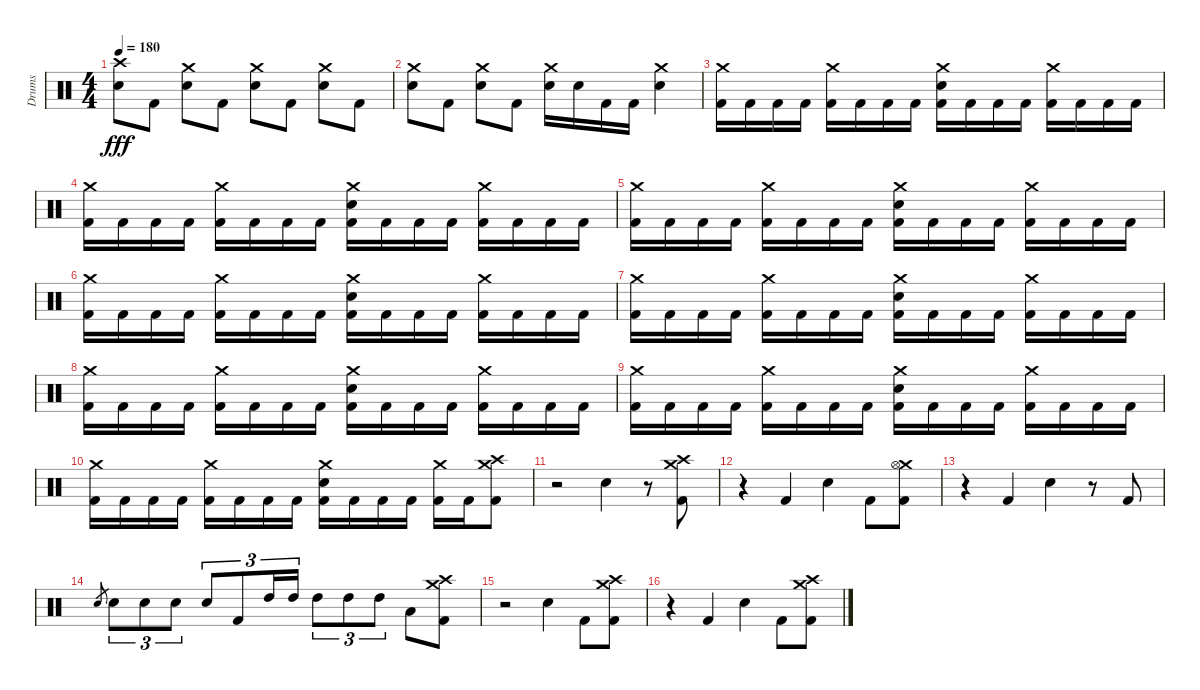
\track ("Drums" "Drums") {instrument percussion}
\staff {score}
\articulation defaults
\ts (4 4)
\tempo 180
\clef neutral
\ks c
("Crash high (hit)" "Electric Snare (hit)").8{dy fff} "Kick (hit) 2".8 ("Crash medium (hit)" "Electric Snare (hit)").8 "Kick (hit) 2".8 ("Crash medium (hit)" "Electric Snare (hit)").8 "Kick (hit) 2".8 ("Crash medium (hit)" "Electric Snare (hit)").8 "Kick (hit) 2".8 |
("Crash medium (hit)" "Electric Snare (hit)").8 "Kick (hit) 2".8 ("Crash medium (hit)" "Electric Snare (hit)").8 "Kick (hit) 2".8 ("Crash medium (hit)" "Electric Snare (hit)").16 "Electric Snare (hit)".16 "Kick (hit) 2".16 "Kick (hit) 2".16 ("Crash medium (hit)" "Electric Snare (hit)").4 |
("Crash medium (hit)" "Kick (hit) 2").16 "Kick (hit) 2".16 "Kick (hit) 2".16 "Kick (hit) 2".16 ("Crash medium (hit)" "Kick (hit) 2").16 "Kick (hit) 2".16 "Kick (hit) 2".16 "Kick (hit) 2".16 ("Crash medium (hit)" "Electric Snare (hit)" "Kick (hit) 2").16 "Kick (hit) 2".16 "Kick (hit) 2".16 "Kick (hit) 2".16 ("Crash medium (hit)" "Kick (hit) 2").16 "Kick (hit) 2".16 "Kick (hit) 2".16 "Kick (hit) 2".16 |
("Crash medium (hit)" "Kick (hit) 2").16 "Kick (hit) 2".16 "Kick (hit) 2".16 "Kick (hit) 2".16 ("Crash medium (hit)" "Kick (hit) 2").16 "Kick (hit) 2".16 "Kick (hit) 2".16 "Kick (hit) 2".16 ("Crash medium (hit)" "Electric Snare (hit)" "Kick (hit) 2").16 "Kick (hit) 2".16 "Kick (hit) 2".16 "Kick (hit) 2".16 ("Crash medium (hit)" "Kick (hit) 2").16 "Kick (hit) 2".16 "Kick (hit) 2".16 "Kick (hit) 2".16 |
("Crash medium (hit)" "Kick (hit) 2").16 "Kick (hit) 2".16 "Kick (hit) 2".16 "Kick (hit) 2".16 ("Crash medium (hit)" "Kick (hit) 2").16 "Kick (hit) 2".16 "Kick (hit) 2".16 "Kick (hit) 2".16 ("Crash medium (hit)" "Electric Snare (hit)" "Kick (hit) 2").16 "Kick (hit) 2".16 "Kick (hit) 2".16 "Kick (hit) 2".16 ("Crash medium (hit)" "Kick (hit) 2").16 "Kick (hit) 2".16 "Kick (hit) 2".16 "Kick (hit) 2".16 |
("Crash medium (hit)" "Kick (hit) 2").16 "Kick (hit) 2".16 "Kick (hit) 2".16 "Kick (hit) 2".16 ("Crash medium (hit)" "Kick (hit) 2").16 "Kick (hit) 2".16 "Kick (hit) 2".16 "Kick (hit) 2".16 ("Crash medium (hit)" "Electric Snare (hit)" "Kick (hit) 2").16 "Kick (hit) 2".16 "Kick (hit) 2".16 "Kick (hit) 2".16 ("Crash medium (hit)" "Kick (hit) 2").16 "Kick (hit) 2".16 "Kick (hit) 2".16 "Kick (hit) 2".16 |
("Crash medium (hit)" "Kick (hit) 2").16 "Kick (hit) 2".16 "Kick (hit) 2".16 "Kick (hit) 2".16 ("Crash medium (hit)" "Kick (hit) 2").16 "Kick (hit) 2".16 "Kick (hit) 2".16 "Kick (hit) 2".16 ("Crash medium (hit)" "Electric Snare (hit)" "Kick (hit) 2").16 "Kick (hit) 2".16 "Kick (hit) 2".16 "Kick (hit) 2".16 ("Crash medium (hit)" "Kick (hit) 2").16 "Kick (hit) 2".16 "Kick (hit) 2".16 "Kick (hit) 2".16 |
("Crash medium (hit)" "Kick (hit) 2").16 "Kick (hit) 2".16 "Kick (hit) 2".16 "Kick (hit) 2".16 ("Crash medium (hit)" "Kick (hit) 2").16 "Kick (hit) 2".16 "Kick (hit) 2".16 "Kick (hit) 2".16 ("Crash medium (hit)" "Electric Snare (hit)" "Kick (hit) 2").16 "Kick (hit) 2".16 "Kick (hit) 2".16 "Kick (hit) 2".16 ("Crash medium (hit)" "Kick (hit) 2").16 "Kick (hit) 2".16 "Kick (hit) 2".16 "Kick (hit) 2".16 |
("Crash medium (hit)" "Kick (hit) 2").16 "Kick (hit) 2".16 "Kick (hit) 2".16 "Kick (hit) 2".16 ("Crash medium (hit)" "Kick (hit) 2").16 "Kick (hit) 2".16 "Kick (hit) 2".16 "Kick (hit) 2".16 ("Crash medium (hit)" "Electric Snare (hit)" "Kick (hit) 2").16 "Kick (hit) 2".16 "Kick (hit) 2".16 "Kick (hit) 2".16 ("Crash medium (hit)" "Kick (hit) 2").16 "Kick (hit) 2".16 "Kick (hit) 2".16 "Kick (hit) 2".16 |
("Crash medium (hit)" "Kick (hit) 2").16 "Kick (hit) 2".16 "Kick (hit) 2".16 "Kick (hit) 2".16 ("Crash medium (hit)" "Kick (hit) 2").16 "Kick (hit) 2".16 "Kick (hit) 2".16 "Kick (hit) 2".16 ("Crash medium (hit)" "Electric Snare (hit)" "Kick (hit) 2").16 "Kick (hit) 2".16 "Kick (hit) 2".16 "Kick (hit) 2".16 ("Crash medium (hit)" "Kick (hit) 2").16 "Kick (hit) 2".16 ("Crash medium (hit)" "Crash high (hit)" "Kick (hit) 2").8 |
r.2 "Electric Snare (hit)".4 r.8 ("Crash medium (hit)" "Crash high (hit)" "Kick (hit) 2").8 |
r.4 "Kick (hit) 2".4 "Electric Snare (hit)".4 "Kick (hit) 2".8 ("Crash medium (hit)" "Hi-Hat (open)" "Kick (hit) 2").8 |
r.4 "Kick (hit) 2".4 "Electric Snare (hit)".4 r.8 "Kick (hit) 2".8 |
"Electric Snare (hit)".8{gr} "Electric Snare (hit)".8{tu (3 2)} "Electric Snare (hit)".8{tu (3 2)} "Electric Snare (hit)".8{tu (3 2)} "Electric Snare (hit)".8{tu (3 2)} "Kick (hit) 2".8{tu (3 2)} "High Tom (hit)".16{tu (3 2)} "High Tom (hit)".16{tu (3 2)} "High Tom (hit)".8{tu (3 2)} "High Tom (hit)".8{tu (3 2)} "High Tom (hit)".8{tu (3 2)} "Low Tom (hit)".8 ("Crash medium (hit)" "Crash high (hit)" "Kick (hit) 2").8 |
r.2 "Electric Snare (hit)".4 "Kick (hit) 2".8 ("Crash medium (hit)" "Crash high (hit)" "Kick (hit) 2").8 |
r.4 "Kick (hit) 2".4 "Electric Snare (hit)".4 "Kick (hit) 2".8 ("Crash medium (hit)" "Crash high (hit)" "Kick (hit) 2").8
